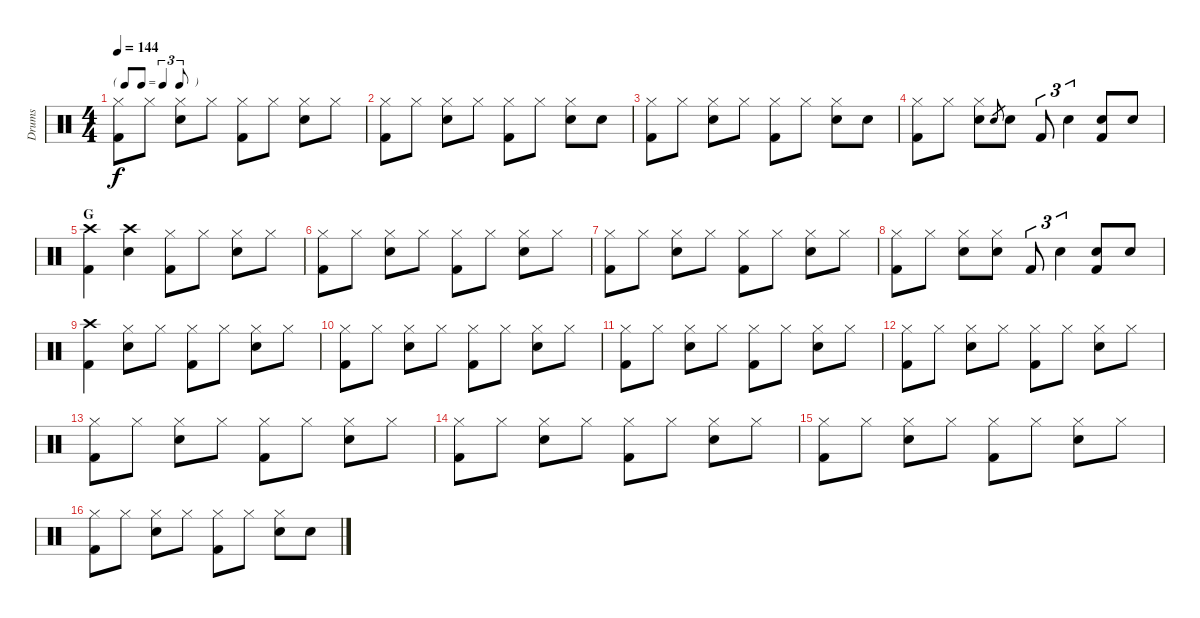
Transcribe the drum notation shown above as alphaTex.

\track ("Drums" "Drums") {instrument percussion}
\staff {score}
\articulation defaults
\ts (4 4)
\tf triplet8th
\tempo 144
\clef neutral
\ks c
("Hi-Hat (closed)" "Kick (hit) 2").8{dy f} "Hi-Hat (closed)".8 ("Hi-Hat (closed)" "Electric Snare (hit)").8 "Hi-Hat (closed)".8 ("Hi-Hat (closed)" "Kick (hit) 2").8 "Hi-Hat (closed)".8 ("Hi-Hat (closed)" "Electric Snare (hit)").8 "Hi-Hat (closed)".8 |
("Hi-Hat (closed)" "Kick (hit) 2").8 "Hi-Hat (closed)".8 ("Hi-Hat (closed)" "Electric Snare (hit)").8 "Hi-Hat (closed)".8 ("Hi-Hat (closed)" "Kick (hit) 2").8 "Hi-Hat (closed)".8 ("Hi-Hat (closed)" "Electric Snare (hit)").8 "Electric Snare (hit)".8 |
("Hi-Hat (closed)" "Kick (hit) 2").8 "Hi-Hat (closed)".8 ("Hi-Hat (closed)" "Electric Snare (hit)").8 "Hi-Hat (closed)".8 ("Hi-Hat (closed)" "Kick (hit) 2").8 "Hi-Hat (closed)".8 ("Hi-Hat (closed)" "Electric Snare (hit)").8 "Electric Snare (hit)".8 |
("Hi-Hat (closed)" "Kick (hit) 2").8 "Hi-Hat (closed)".8 ("Hi-Hat (closed)" "Electric Snare (hit)").8 "Electric Snare (hit)".8{gr} "Electric Snare (hit)".8 "Kick (hit) 2".8{tu (3 2)} "Electric Snare (hit)".4{tu (3 2)} ("Electric Snare (hit)" "Kick (hit) 2").8 "Electric Snare (hit)".8 |
\section ("" "G")
("Crash high (hit)" "Kick (hit) 2").4 ("Crash high (hit)" "Electric Snare (hit)").4 ("Hi-Hat (closed)" "Kick (hit) 2").8 "Hi-Hat (closed)".8 ("Hi-Hat (closed)" "Electric Snare (hit)").8 "Hi-Hat (closed)".8 |
("Hi-Hat (closed)" "Kick (hit) 2").8 "Hi-Hat (closed)".8 ("Hi-Hat (closed)" "Electric Snare (hit)").8 "Hi-Hat (closed)".8 ("Hi-Hat (closed)" "Kick (hit) 2").8 "Hi-Hat (closed)".8 ("Hi-Hat (closed)" "Electric Snare (hit)").8 "Hi-Hat (closed)".8 |
("Hi-Hat (closed)" "Kick (hit) 2").8 "Hi-Hat (closed)".8 ("Hi-Hat (closed)" "Electric Snare (hit)").8 "Hi-Hat (closed)".8 ("Hi-Hat (closed)" "Kick (hit) 2").8 "Hi-Hat (closed)".8 ("Hi-Hat (closed)" "Electric Snare (hit)").8 "Hi-Hat (closed)".8 |
("Hi-Hat (closed)" "Kick (hit) 2").8 "Hi-Hat (closed)".8 ("Hi-Hat (closed)" "Electric Snare (hit)").8 ("Hi-Hat (closed)" "Electric Snare (hit)").8 "Kick (hit) 2".8{tu (3 2)} "Electric Snare (hit)".4{tu (3 2)} ("Electric Snare (hit)" "Kick (hit) 2").8 "Electric Snare (hit)".8 |
("Crash high (hit)" "Kick (hit) 2").4 ("Hi-Hat (closed)" "Electric Snare (hit)").8 "Hi-Hat (closed)".8 ("Hi-Hat (closed)" "Kick (hit) 2").8 "Hi-Hat (closed)".8 ("Hi-Hat (closed)" "Electric Snare (hit)").8 "Hi-Hat (closed)".8 |
("Hi-Hat (closed)" "Kick (hit) 2").8 "Hi-Hat (closed)".8 ("Hi-Hat (closed)" "Electric Snare (hit)").8 "Hi-Hat (closed)".8 ("Hi-Hat (closed)" "Kick (hit) 2").8 "Hi-Hat (closed)".8 ("Hi-Hat (closed)" "Electric Snare (hit)").8 "Hi-Hat (closed)".8 |
("Hi-Hat (closed)" "Kick (hit) 2").8 "Hi-Hat (closed)".8 ("Hi-Hat (closed)" "Electric Snare (hit)").8 "Hi-Hat (closed)".8 ("Hi-Hat (closed)" "Kick (hit) 2").8 "Hi-Hat (closed)".8 ("Hi-Hat (closed)" "Electric Snare (hit)").8 "Hi-Hat (closed)".8 |
("Hi-Hat (closed)" "Kick (hit) 2").8 "Hi-Hat (closed)".8 ("Hi-Hat (closed)" "Electric Snare (hit)").8 "Hi-Hat (closed)".8 ("Hi-Hat (closed)" "Kick (hit) 2").8 "Hi-Hat (closed)".8 ("Hi-Hat (closed)" "Electric Snare (hit)").8 "Hi-Hat (closed)".8 |
("Hi-Hat (closed)" "Kick (hit) 2").8 "Hi-Hat (closed)".8 ("Hi-Hat (closed)" "Electric Snare (hit)").8 "Hi-Hat (closed)".8 ("Hi-Hat (closed)" "Kick (hit) 2").8 "Hi-Hat (closed)".8 ("Hi-Hat (closed)" "Electric Snare (hit)").8 "Hi-Hat (closed)".8 |
("Hi-Hat (closed)" "Kick (hit) 2").8 "Hi-Hat (closed)".8 ("Hi-Hat (closed)" "Electric Snare (hit)").8 "Hi-Hat (closed)".8 ("Hi-Hat (closed)" "Kick (hit) 2").8 "Hi-Hat (closed)".8 ("Hi-Hat (closed)" "Electric Snare (hit)").8 "Hi-Hat (closed)".8 |
("Hi-Hat (closed)" "Kick (hit) 2").8 "Hi-Hat (closed)".8 ("Hi-Hat (closed)" "Electric Snare (hit)").8 "Hi-Hat (closed)".8 ("Hi-Hat (closed)" "Kick (hit) 2").8 "Hi-Hat (closed)".8 ("Hi-Hat (closed)" "Electric Snare (hit)").8 "Hi-Hat (closed)".8 |
("Hi-Hat (closed)" "Kick (hit) 2").8 "Hi-Hat (closed)".8 ("Hi-Hat (closed)" "Electric Snare (hit)").8 "Hi-Hat (closed)".8 ("Hi-Hat (closed)" "Kick (hit) 2").8 "Hi-Hat (closed)".8 ("Hi-Hat (closed)" "Electric Snare (hit)").8 "Electric Snare (hit)".8
